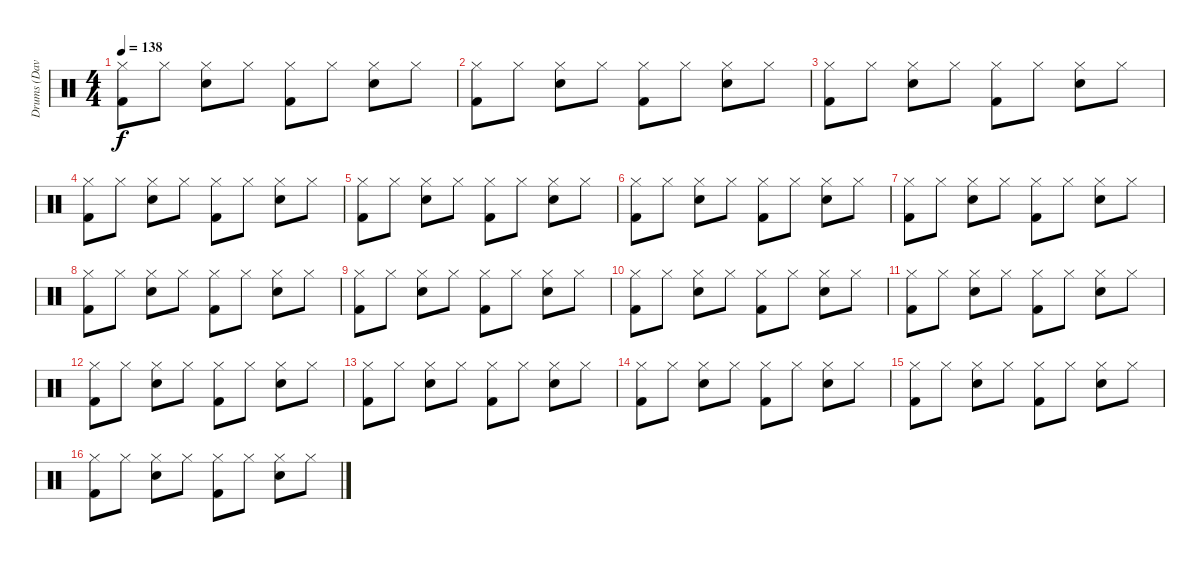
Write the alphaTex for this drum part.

\track ("Drums (Dave Holland)" "Drums (Dav") {instrument percussion}
\staff {score}
\articulation defaults
\ts (4 4)
\tempo 138
\clef neutral
\ks c
("Hi-Hat (closed)" "Kick (hit) 2").8{dy f} "Hi-Hat (closed)".8 ("Hi-Hat (closed)" "Snare (hit) 2").8 "Hi-Hat (closed)".8 ("Hi-Hat (closed)" "Kick (hit) 2").8 "Hi-Hat (closed)".8 ("Hi-Hat (closed)" "Snare (hit) 2").8 "Hi-Hat (closed)".8 |
("Hi-Hat (closed)" "Kick (hit) 2").8 "Hi-Hat (closed)".8 ("Hi-Hat (closed)" "Snare (hit) 2").8 "Hi-Hat (closed)".8 ("Hi-Hat (closed)" "Kick (hit) 2").8 "Hi-Hat (closed)".8 ("Hi-Hat (closed)" "Snare (hit) 2").8 "Hi-Hat (closed)".8 |
("Hi-Hat (closed)" "Kick (hit) 2").8 "Hi-Hat (closed)".8 ("Hi-Hat (closed)" "Snare (hit) 2").8 "Hi-Hat (closed)".8 ("Hi-Hat (closed)" "Kick (hit) 2").8 "Hi-Hat (closed)".8 ("Hi-Hat (closed)" "Snare (hit) 2").8 "Hi-Hat (closed)".8 |
("Hi-Hat (closed)" "Kick (hit) 2").8 "Hi-Hat (closed)".8 ("Hi-Hat (closed)" "Snare (hit) 2").8 "Hi-Hat (closed)".8 ("Hi-Hat (closed)" "Kick (hit) 2").8 "Hi-Hat (closed)".8 ("Hi-Hat (closed)" "Snare (hit) 2").8 "Hi-Hat (closed)".8 |
("Hi-Hat (closed)" "Kick (hit) 2").8 "Hi-Hat (closed)".8 ("Hi-Hat (closed)" "Snare (hit) 2").8 "Hi-Hat (closed)".8 ("Hi-Hat (closed)" "Kick (hit) 2").8 "Hi-Hat (closed)".8 ("Hi-Hat (closed)" "Snare (hit) 2").8 "Hi-Hat (closed)".8 |
("Hi-Hat (closed)" "Kick (hit) 2").8 "Hi-Hat (closed)".8 ("Hi-Hat (closed)" "Snare (hit) 2").8 "Hi-Hat (closed)".8 ("Hi-Hat (closed)" "Kick (hit) 2").8 "Hi-Hat (closed)".8 ("Hi-Hat (closed)" "Snare (hit) 2").8 "Hi-Hat (closed)".8 |
("Hi-Hat (closed)" "Kick (hit) 2").8 "Hi-Hat (closed)".8 ("Hi-Hat (closed)" "Snare (hit) 2").8 "Hi-Hat (closed)".8 ("Hi-Hat (closed)" "Kick (hit) 2").8 "Hi-Hat (closed)".8 ("Hi-Hat (closed)" "Snare (hit) 2").8 "Hi-Hat (closed)".8 |
("Hi-Hat (closed)" "Kick (hit) 2").8 "Hi-Hat (closed)".8 ("Hi-Hat (closed)" "Snare (hit) 2").8 "Hi-Hat (closed)".8 ("Hi-Hat (closed)" "Kick (hit) 2").8 "Hi-Hat (closed)".8 ("Hi-Hat (closed)" "Snare (hit) 2").8 "Hi-Hat (closed)".8 |
("Hi-Hat (closed)" "Kick (hit) 2").8 "Hi-Hat (closed)".8 ("Hi-Hat (closed)" "Snare (hit) 2").8 "Hi-Hat (closed)".8 ("Hi-Hat (closed)" "Kick (hit) 2").8 "Hi-Hat (closed)".8 ("Hi-Hat (closed)" "Snare (hit) 2").8 "Hi-Hat (closed)".8 |
("Hi-Hat (closed)" "Kick (hit) 2").8 "Hi-Hat (closed)".8 ("Hi-Hat (closed)" "Snare (hit) 2").8 "Hi-Hat (closed)".8 ("Hi-Hat (closed)" "Kick (hit) 2").8 "Hi-Hat (closed)".8 ("Hi-Hat (closed)" "Snare (hit) 2").8 "Hi-Hat (closed)".8 |
("Hi-Hat (closed)" "Kick (hit) 2").8 "Hi-Hat (closed)".8 ("Hi-Hat (closed)" "Snare (hit) 2").8 "Hi-Hat (closed)".8 ("Hi-Hat (closed)" "Kick (hit) 2").8 "Hi-Hat (closed)".8 ("Hi-Hat (closed)" "Snare (hit) 2").8 "Hi-Hat (closed)".8 |
("Hi-Hat (closed)" "Kick (hit) 2").8 "Hi-Hat (closed)".8 ("Hi-Hat (closed)" "Snare (hit) 2").8 "Hi-Hat (closed)".8 ("Hi-Hat (closed)" "Kick (hit) 2").8 "Hi-Hat (closed)".8 ("Hi-Hat (closed)" "Snare (hit) 2").8 "Hi-Hat (closed)".8 |
("Hi-Hat (closed)" "Kick (hit) 2").8 "Hi-Hat (closed)".8 ("Hi-Hat (closed)" "Snare (hit) 2").8 "Hi-Hat (closed)".8 ("Hi-Hat (closed)" "Kick (hit) 2").8 "Hi-Hat (closed)".8 ("Hi-Hat (closed)" "Snare (hit) 2").8 "Hi-Hat (closed)".8 |
("Hi-Hat (closed)" "Kick (hit) 2").8 "Hi-Hat (closed)".8 ("Hi-Hat (closed)" "Snare (hit) 2").8 "Hi-Hat (closed)".8 ("Hi-Hat (closed)" "Kick (hit) 2").8 "Hi-Hat (closed)".8 ("Hi-Hat (closed)" "Snare (hit) 2").8 "Hi-Hat (closed)".8 |
("Hi-Hat (closed)" "Kick (hit) 2").8 "Hi-Hat (closed)".8 ("Hi-Hat (closed)" "Snare (hit) 2").8 "Hi-Hat (closed)".8 ("Hi-Hat (closed)" "Kick (hit) 2").8 "Hi-Hat (closed)".8 ("Hi-Hat (closed)" "Snare (hit) 2").8 "Hi-Hat (closed)".8 |
("Hi-Hat (closed)" "Kick (hit) 2").8 "Hi-Hat (closed)".8 ("Hi-Hat (closed)" "Snare (hit) 2").8 "Hi-Hat (closed)".8 ("Hi-Hat (closed)" "Kick (hit) 2").8 "Hi-Hat (closed)".8 ("Hi-Hat (closed)" "Snare (hit) 2").8 "Hi-Hat (closed)".8
